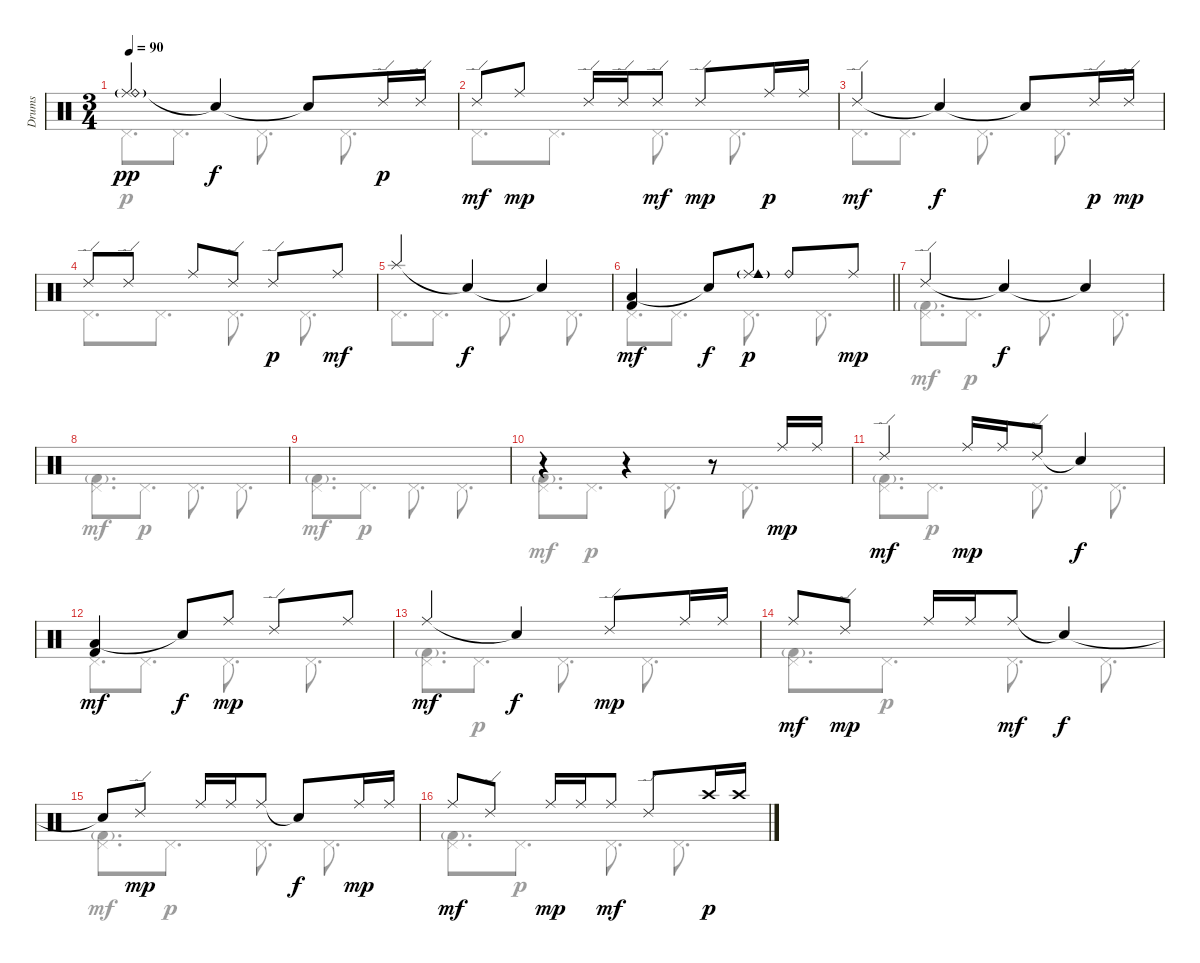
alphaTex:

\track ("Drums" "Drums") {instrument percussion}
\staff {score}
\articulation defaults
\voice
\ts (3 4)
\tempo 90
\clef neutral
\ks c
("Ride (middle)" "Ride (bell)"{g}).4{dy pp} "Snare (hit)"{t}.4{dy f} "Snare (hit)"{t}.8 "Ride (edge) 2".16{dy p} "Ride (edge) 2".16 |
"Ride (edge) 2".8{dy mf} "Ride (middle)".8{dy mp} "Ride (edge) 2".16 "Ride (edge) 2".16 "Ride (edge) 2".8{dy mf} "Ride (edge) 2".8{dy mp} "Ride (middle)".16{dy p} "Ride (middle)".16 |
"Ride (edge) 2".4{dy mf} "Snare (hit)"{t}.4{dy f} "Snare (hit)"{t}.8 "Ride (edge) 2".16{dy p} "Ride (edge) 2".16{dy mp} |
"Ride (edge) 2".8 "Ride (edge) 2".8 "Ride (middle)".8 "Ride (edge) 2".8 "Ride (edge) 2".8{dy p} "Ride (middle)".8{dy mf} |
"Splash (hit)".4 "Snare (hit)"{t}.4{dy f} "Snare (hit)"{t}.4 |
\barLineRight lightlight
("Low Tom (hit)" "Kick (hit) 2").4{dy mf} "Snare (hit)"{t}.8{dy f} ("Ride (middle)" "Cowbell medium (hit)"{g}).8{dy p} "Ride (bell)".8 "Ride (middle)".8{dy mp} |
\section ("" "")
"Ride (edge) 2".4 "Snare (hit)"{t}.4{dy f} "Snare (hit)"{t}.4 |
|
|
r.4 r.4 r.8 "Ride (middle)".16{dy mp} "Ride (middle)".16 |
"Ride (edge) 2".4{dy mf} "Ride (middle)".16{dy mp} "Ride (middle)".16 "Ride (edge) 2".8 "Snare (hit)"{t}.4{dy f} |
("Low Tom (hit)" "Kick (hit) 2").4{dy mf} "Snare (hit)"{t}.8{dy f} "Ride (middle)".8{dy mp} "Ride (edge) 2".8 "Ride (middle)".8 |
"Ride (middle)".4{dy mf} "Snare (hit)"{t}.4{dy f} "Ride (edge) 2".8{dy mp} "Ride (middle)".16 "Ride (middle)".16 |
"Ride (middle)".8{dy mf} "Ride (edge) 2".8{dy mp} "Ride (middle)".16 "Ride (middle)".16 "Ride (middle)".8{dy mf} "Snare (hit)"{t}.4{dy f} |
"Snare (hit)"{t}.8 "Ride (edge) 2".8{dy mp} "Ride (middle)".16 "Ride (middle)".16 "Ride (middle)".8 "Snare (hit)"{t}.8{dy f} "Ride (middle)".16{dy mp} "Ride (middle)".16 |
"Ride (middle)".8{dy mf} "Ride (edge) 2".8 "Ride (middle)".16{dy mp} "Ride (middle)".16 "Ride (middle)".8{dy mf} "Ride (edge) 2".8 "Crash high (hit)".16{dy p} "Crash high (hit)".16
\voice
\clef neutral
\ottava regular
\simile none
\ks c "Pedal Hi-Hat (hit)".8{d dy p} "Pedal Hi-Hat (hit)".8{d} "Pedal Hi-Hat (hit)".8{d} "Pedal Hi-Hat (hit)".8{d}
|
"Pedal Hi-Hat (hit)".8{d} "Pedal Hi-Hat (hit)".8{d} "Pedal Hi-Hat (hit)".8{d} "Pedal Hi-Hat (hit)".8{d} |
"Pedal Hi-Hat (hit)".8{d} "Pedal Hi-Hat (hit)".8{d} "Pedal Hi-Hat (hit)".8{d} "Pedal Hi-Hat (hit)".8{d} |
"Pedal Hi-Hat (hit)".8{d} "Pedal Hi-Hat (hit)".8{d} "Pedal Hi-Hat (hit)".8{d} "Pedal Hi-Hat (hit)".8{d} |
"Pedal Hi-Hat (hit)".8{d} "Pedal Hi-Hat (hit)".8{d} "Pedal Hi-Hat (hit)".8{d} "Pedal Hi-Hat (hit)".8{d} |
\barLineRight lightlight "Pedal Hi-Hat (hit)".8{d} "Pedal Hi-Hat (hit)".8{d} "Pedal Hi-Hat (hit)".8{d} "Pedal Hi-Hat (hit)".8{d}
|
("Pedal Hi-Hat (hit)" "Kick (hit) 2"{g}).8{d dy mf} "Pedal Hi-Hat (hit)".8{d dy p} "Pedal Hi-Hat (hit)".8{d} "Pedal Hi-Hat (hit)".8{d} |
("Pedal Hi-Hat (hit)" "Kick (hit) 2"{g}).8{d dy mf} "Pedal Hi-Hat (hit)".8{d dy p} "Pedal Hi-Hat (hit)".8{d} "Pedal Hi-Hat (hit)".8{d} |
("Pedal Hi-Hat (hit)" "Kick (hit) 2"{g}).8{d dy mf} "Pedal Hi-Hat (hit)".8{d dy p} "Pedal Hi-Hat (hit)".8{d} "Pedal Hi-Hat (hit)".8{d} |
("Pedal Hi-Hat (hit)" "Kick (hit) 2"{g}).8{d dy mf} "Pedal Hi-Hat (hit)".8{d dy p} "Pedal Hi-Hat (hit)".8{d} "Pedal Hi-Hat (hit)".8{d} |
("Pedal Hi-Hat (hit)" "Kick (hit) 2"{g}).8{d dy mf} "Pedal Hi-Hat (hit)".8{d dy p} "Pedal Hi-Hat (hit)".8{d} "Pedal Hi-Hat (hit)".8{d} |
"Pedal Hi-Hat (hit)".8{d} "Pedal Hi-Hat (hit)".8{d} "Pedal Hi-Hat (hit)".8{d} "Pedal Hi-Hat (hit)".8{d} |
("Pedal Hi-Hat (hit)" "Kick (hit) 2"{g}).8{d dy mf} "Pedal Hi-Hat (hit)".8{d dy p} "Pedal Hi-Hat (hit)".8{d} "Pedal Hi-Hat (hit)".8{d} |
("Pedal Hi-Hat (hit)" "Kick (hit) 2"{g}).8{d dy mf} "Pedal Hi-Hat (hit)".8{d dy p} "Pedal Hi-Hat (hit)".8{d} "Pedal Hi-Hat (hit)".8{d} |
("Pedal Hi-Hat (hit)" "Kick (hit) 2"{g}).8{d dy mf} "Pedal Hi-Hat (hit)".8{d dy p} "Pedal Hi-Hat (hit)".8{d} "Pedal Hi-Hat (hit)".8{d} |
("Pedal Hi-Hat (hit)" "Kick (hit) 2"{g}).8{d dy mf} "Pedal Hi-Hat (hit)".8{d dy p} "Pedal Hi-Hat (hit)".8{d} "Pedal Hi-Hat (hit)".8{d}
